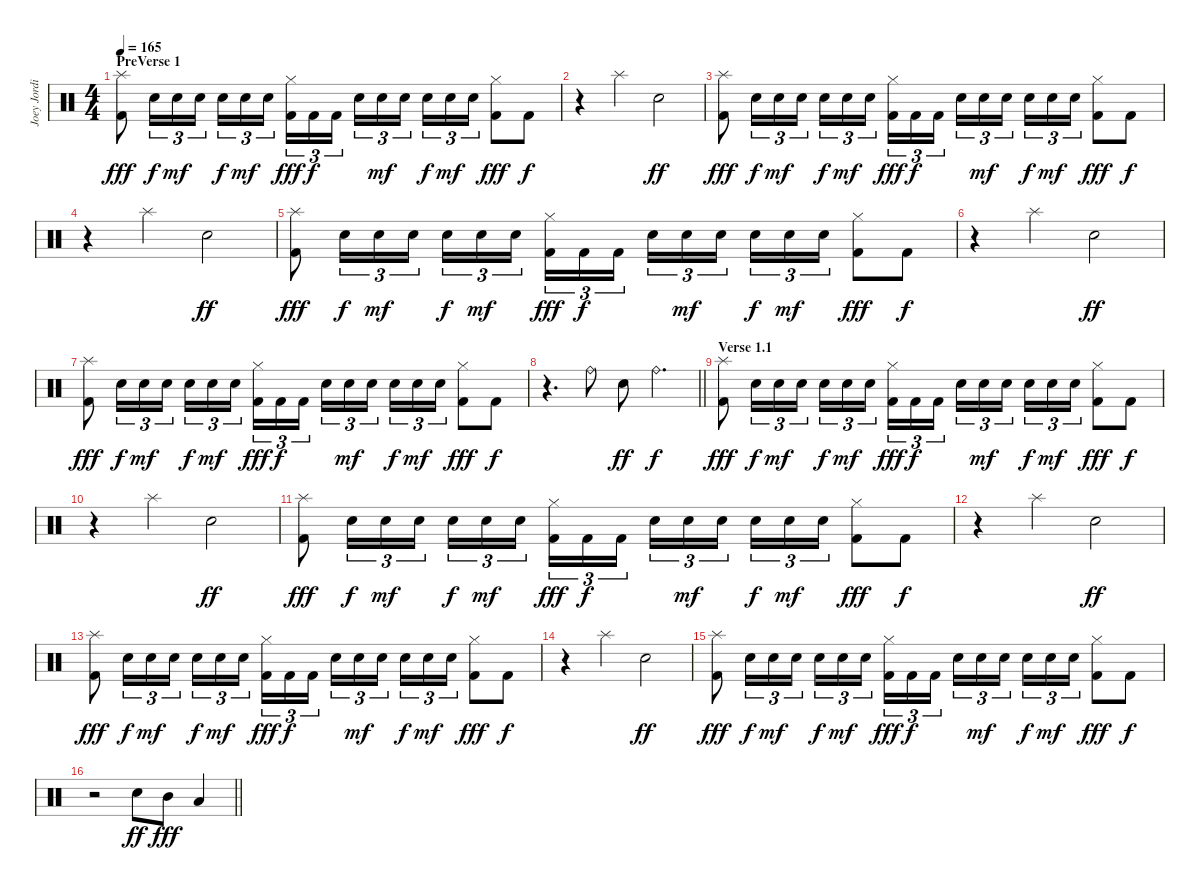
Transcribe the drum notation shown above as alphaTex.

\track ("Joey Jordison" "Joey Jordi") {instrument percussion}
\staff {score}
\articulation defaults
\ts (4 4)
\section ("" "PreVerse 1")
\tempo 165
\clef neutral
\ks c
("Splash (hit)" "Kick (hit) 2").8{dy fff} "Electric Snare (hit)".16{tu (3 2) dy f} "Electric Snare (hit)".16{tu (3 2) dy mf} "Electric Snare (hit)".16{tu (3 2)} "Electric Snare (hit)".16{tu (3 2) dy f} "Electric Snare (hit)".16{tu (3 2) dy mf} "Electric Snare (hit)".16{tu (3 2) beam splitsecondary} ("Hi-Hat (closed)" "Kick (hit) 2").16{tu (3 2) dy fff} "Kick (hit) 2".16{tu (3 2) dy f} "Kick (hit) 2".16{tu (3 2)} "Electric Snare (hit)".16{tu (3 2)} "Electric Snare (hit)".16{tu (3 2) dy mf} "Electric Snare (hit)".16{tu (3 2) beam splitsecondary} "Electric Snare (hit)".16{tu (3 2) dy f} "Electric Snare (hit)".16{tu (3 2) dy mf} "Electric Snare (hit)".16{tu (3 2)} ("Hi-Hat (closed)" "Kick (hit) 2").8{dy fff} "Kick (hit) 2".8{dy f} |
r.4 "Splash (hit)".4 "Electric Snare (hit)".2{dy ff} |
("Splash (hit)" "Kick (hit) 2").8{dy fff} "Electric Snare (hit)".16{tu (3 2) dy f} "Electric Snare (hit)".16{tu (3 2) dy mf} "Electric Snare (hit)".16{tu (3 2)} "Electric Snare (hit)".16{tu (3 2) dy f} "Electric Snare (hit)".16{tu (3 2) dy mf} "Electric Snare (hit)".16{tu (3 2) beam splitsecondary} ("Hi-Hat (closed)" "Kick (hit) 2").16{tu (3 2) dy fff} "Kick (hit) 2".16{tu (3 2) dy f} "Kick (hit) 2".16{tu (3 2)} "Electric Snare (hit)".16{tu (3 2)} "Electric Snare (hit)".16{tu (3 2) dy mf} "Electric Snare (hit)".16{tu (3 2) beam splitsecondary} "Electric Snare (hit)".16{tu (3 2) dy f} "Electric Snare (hit)".16{tu (3 2) dy mf} "Electric Snare (hit)".16{tu (3 2)} ("Hi-Hat (closed)" "Kick (hit) 2").8{dy fff} "Kick (hit) 2".8{dy f} |
r.4 "Splash (hit)".4 "Electric Snare (hit)".2{dy ff} |
("Splash (hit)" "Kick (hit) 2").8{dy fff} "Electric Snare (hit)".16{tu (3 2) dy f} "Electric Snare (hit)".16{tu (3 2) dy mf} "Electric Snare (hit)".16{tu (3 2)} "Electric Snare (hit)".16{tu (3 2) dy f} "Electric Snare (hit)".16{tu (3 2) dy mf} "Electric Snare (hit)".16{tu (3 2) beam splitsecondary} ("Hi-Hat (closed)" "Kick (hit) 2").16{tu (3 2) dy fff} "Kick (hit) 2".16{tu (3 2) dy f} "Kick (hit) 2".16{tu (3 2)} "Electric Snare (hit)".16{tu (3 2)} "Electric Snare (hit)".16{tu (3 2) dy mf} "Electric Snare (hit)".16{tu (3 2) beam splitsecondary} "Electric Snare (hit)".16{tu (3 2) dy f} "Electric Snare (hit)".16{tu (3 2) dy mf} "Electric Snare (hit)".16{tu (3 2)} ("Hi-Hat (closed)" "Kick (hit) 2").8{dy fff} "Kick (hit) 2".8{dy f} |
r.4 "Splash (hit)".4 "Electric Snare (hit)".2{dy ff} |
("Splash (hit)" "Kick (hit) 2").8{dy fff} "Electric Snare (hit)".16{tu (3 2) dy f} "Electric Snare (hit)".16{tu (3 2) dy mf} "Electric Snare (hit)".16{tu (3 2)} "Electric Snare (hit)".16{tu (3 2) dy f} "Electric Snare (hit)".16{tu (3 2) dy mf} "Electric Snare (hit)".16{tu (3 2) beam splitsecondary} ("Hi-Hat (closed)" "Kick (hit) 2").16{tu (3 2) dy fff} "Kick (hit) 2".16{tu (3 2) dy f} "Kick (hit) 2".16{tu (3 2)} "Electric Snare (hit)".16{tu (3 2)} "Electric Snare (hit)".16{tu (3 2) dy mf} "Electric Snare (hit)".16{tu (3 2) beam splitsecondary} "Electric Snare (hit)".16{tu (3 2) dy f} "Electric Snare (hit)".16{tu (3 2) dy mf} "Electric Snare (hit)".16{tu (3 2)} ("Hi-Hat (closed)" "Kick (hit) 2").8{dy fff} "Kick (hit) 2".8{dy f} |
\barLineRight lightlight
r.4{d} "Ride (bell)".8 "Electric Snare (hit)".8{dy ff} "Ride (bell)".4{d dy f} |
\section ("" "Verse 1.1")
("Splash (hit)" "Kick (hit) 2").8{dy fff} "Electric Snare (hit)".16{tu (3 2) dy f} "Electric Snare (hit)".16{tu (3 2) dy mf} "Electric Snare (hit)".16{tu (3 2)} "Electric Snare (hit)".16{tu (3 2) dy f} "Electric Snare (hit)".16{tu (3 2) dy mf} "Electric Snare (hit)".16{tu (3 2) beam splitsecondary} ("Hi-Hat (closed)" "Kick (hit) 2").16{tu (3 2) dy fff} "Kick (hit) 2".16{tu (3 2) dy f} "Kick (hit) 2".16{tu (3 2)} "Electric Snare (hit)".16{tu (3 2)} "Electric Snare (hit)".16{tu (3 2) dy mf} "Electric Snare (hit)".16{tu (3 2) beam splitsecondary} "Electric Snare (hit)".16{tu (3 2) dy f} "Electric Snare (hit)".16{tu (3 2) dy mf} "Electric Snare (hit)".16{tu (3 2)} ("Hi-Hat (closed)" "Kick (hit) 2").8{dy fff} "Kick (hit) 2".8{dy f} |
r.4 "Splash (hit)".4 "Electric Snare (hit)".2{dy ff} |
("Splash (hit)" "Kick (hit) 2").8{dy fff} "Electric Snare (hit)".16{tu (3 2) dy f} "Electric Snare (hit)".16{tu (3 2) dy mf} "Electric Snare (hit)".16{tu (3 2)} "Electric Snare (hit)".16{tu (3 2) dy f} "Electric Snare (hit)".16{tu (3 2) dy mf} "Electric Snare (hit)".16{tu (3 2) beam splitsecondary} ("Hi-Hat (closed)" "Kick (hit) 2").16{tu (3 2) dy fff} "Kick (hit) 2".16{tu (3 2) dy f} "Kick (hit) 2".16{tu (3 2)} "Electric Snare (hit)".16{tu (3 2)} "Electric Snare (hit)".16{tu (3 2) dy mf} "Electric Snare (hit)".16{tu (3 2) beam splitsecondary} "Electric Snare (hit)".16{tu (3 2) dy f} "Electric Snare (hit)".16{tu (3 2) dy mf} "Electric Snare (hit)".16{tu (3 2)} ("Hi-Hat (closed)" "Kick (hit) 2").8{dy fff} "Kick (hit) 2".8{dy f} |
r.4 "Splash (hit)".4 "Electric Snare (hit)".2{dy ff} |
("Splash (hit)" "Kick (hit) 2").8{dy fff} "Electric Snare (hit)".16{tu (3 2) dy f} "Electric Snare (hit)".16{tu (3 2) dy mf} "Electric Snare (hit)".16{tu (3 2)} "Electric Snare (hit)".16{tu (3 2) dy f} "Electric Snare (hit)".16{tu (3 2) dy mf} "Electric Snare (hit)".16{tu (3 2) beam splitsecondary} ("Hi-Hat (closed)" "Kick (hit) 2").16{tu (3 2) dy fff} "Kick (hit) 2".16{tu (3 2) dy f} "Kick (hit) 2".16{tu (3 2)} "Electric Snare (hit)".16{tu (3 2)} "Electric Snare (hit)".16{tu (3 2) dy mf} "Electric Snare (hit)".16{tu (3 2) beam splitsecondary} "Electric Snare (hit)".16{tu (3 2) dy f} "Electric Snare (hit)".16{tu (3 2) dy mf} "Electric Snare (hit)".16{tu (3 2)} ("Hi-Hat (closed)" "Kick (hit) 2").8{dy fff} "Kick (hit) 2".8{dy f} |
r.4 "Splash (hit)".4 "Electric Snare (hit)".2{dy ff} |
("Splash (hit)" "Kick (hit) 2").8{dy fff} "Electric Snare (hit)".16{tu (3 2) dy f} "Electric Snare (hit)".16{tu (3 2) dy mf} "Electric Snare (hit)".16{tu (3 2)} "Electric Snare (hit)".16{tu (3 2) dy f} "Electric Snare (hit)".16{tu (3 2) dy mf} "Electric Snare (hit)".16{tu (3 2) beam splitsecondary} ("Hi-Hat (closed)" "Kick (hit) 2").16{tu (3 2) dy fff} "Kick (hit) 2".16{tu (3 2) dy f} "Kick (hit) 2".16{tu (3 2)} "Electric Snare (hit)".16{tu (3 2)} "Electric Snare (hit)".16{tu (3 2) dy mf} "Electric Snare (hit)".16{tu (3 2) beam splitsecondary} "Electric Snare (hit)".16{tu (3 2) dy f} "Electric Snare (hit)".16{tu (3 2) dy mf} "Electric Snare (hit)".16{tu (3 2)} ("Hi-Hat (closed)" "Kick (hit) 2").8{dy fff} "Kick (hit) 2".8{dy f} |
\barLineRight lightlight
r.2 "Electric Snare (hit)".8{dy ff} "Mid Tom (hit)".8{dy fff} "Low Tom (hit)".4
